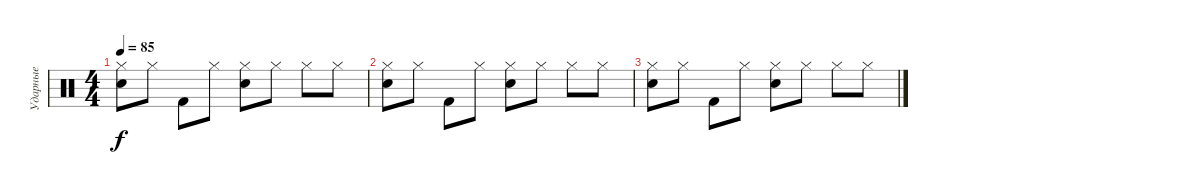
\track ("Ударные" "Ударные") {instrument percussion}
\staff {score}
\articulation defaults
\ts (4 4)
\tempo 85
\clef neutral
\ks c
("Hi-Hat (closed)" "Snare (hit) 2").8{dy f} "Hi-Hat (closed)".8 "Kick (hit) 2".8 "Hi-Hat (closed)".8 ("Hi-Hat (closed)" "Snare (hit) 2").8 "Hi-Hat (closed)".8 "Hi-Hat (closed)".8 "Hi-Hat (closed)".8 |
("Hi-Hat (closed)" "Snare (hit) 2").8 "Hi-Hat (closed)".8 "Kick (hit) 2".8 "Hi-Hat (closed)".8 ("Hi-Hat (closed)" "Snare (hit) 2").8 "Hi-Hat (closed)".8 "Hi-Hat (closed)".8 "Hi-Hat (closed)".8 |
("Hi-Hat (closed)" "Snare (hit) 2").8 "Hi-Hat (closed)".8 "Kick (hit) 2".8 "Hi-Hat (closed)".8 ("Hi-Hat (closed)" "Snare (hit) 2").8 "Hi-Hat (closed)".8 "Hi-Hat (closed)".8 "Hi-Hat (closed)".8
